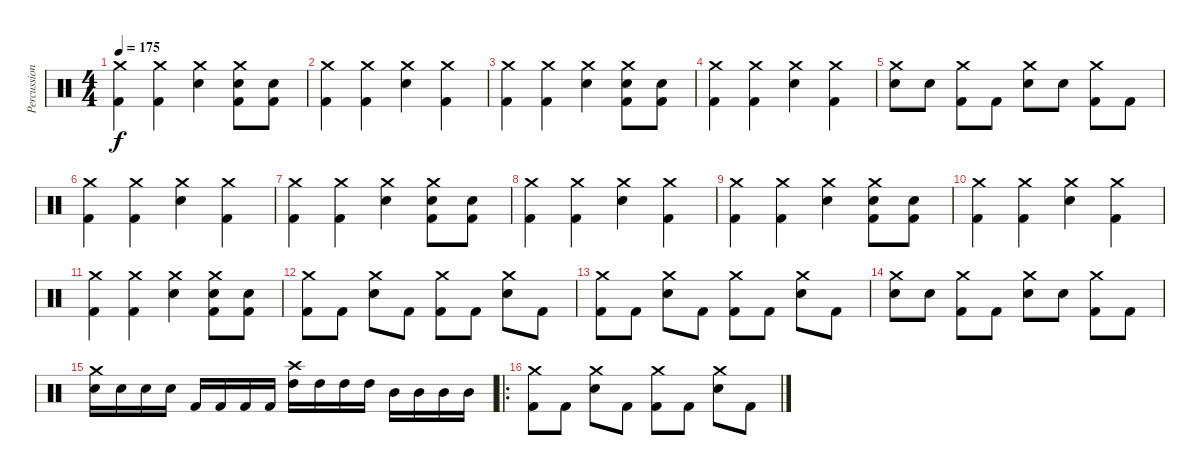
\track ("Percussions" "Percussion") {instrument percussion}
\staff {score}
\articulation defaults
\ts (4 4)
\tempo 175
\clef neutral
\ks c
("Crash medium (hit)" "Kick (hit) 2").4{dy f} ("Crash medium (hit)" "Kick (hit) 2").4 ("Crash medium (hit)" "Snare (hit) 2").4 ("Crash medium (hit)" "Snare (hit) 2" "Kick (hit) 2").8 ("Snare (hit) 2" "Kick (hit) 2").8 |
("Crash medium (hit)" "Kick (hit) 2").4 ("Crash medium (hit)" "Kick (hit) 2").4 ("Crash medium (hit)" "Snare (hit) 2").4 ("Crash medium (hit)" "Kick (hit) 2").4 |
("Crash medium (hit)" "Kick (hit) 2").4 ("Crash medium (hit)" "Kick (hit) 2").4 ("Crash medium (hit)" "Snare (hit) 2").4 ("Crash medium (hit)" "Snare (hit) 2" "Kick (hit) 2").8 ("Snare (hit) 2" "Kick (hit) 2").8 |
("Crash medium (hit)" "Kick (hit) 2").4 ("Crash medium (hit)" "Kick (hit) 2").4 ("Crash medium (hit)" "Snare (hit) 2").4 ("Crash medium (hit)" "Kick (hit) 2").4 |
("Crash medium (hit)" "Snare (hit) 2").8 "Snare (hit) 2".8 ("Crash medium (hit)" "Kick (hit) 2").8 "Kick (hit) 2".8 ("Crash medium (hit)" "Snare (hit) 2").8 "Snare (hit) 2".8 ("Crash medium (hit)" "Kick (hit) 2").8 "Kick (hit) 2".8 |
("Crash medium (hit)" "Kick (hit) 2").4 ("Crash medium (hit)" "Kick (hit) 2").4 ("Crash medium (hit)" "Snare (hit) 2").4 ("Crash medium (hit)" "Kick (hit) 2").4 |
("Crash medium (hit)" "Kick (hit) 2").4 ("Crash medium (hit)" "Kick (hit) 2").4 ("Crash medium (hit)" "Snare (hit) 2").4 ("Crash medium (hit)" "Snare (hit) 2" "Kick (hit) 2").8 ("Snare (hit) 2" "Kick (hit) 2").8 |
("Crash medium (hit)" "Kick (hit) 2").4 ("Crash medium (hit)" "Kick (hit) 2").4 ("Crash medium (hit)" "Snare (hit) 2").4 ("Crash medium (hit)" "Kick (hit) 2").4 |
("Crash medium (hit)" "Kick (hit) 2").4 ("Crash medium (hit)" "Kick (hit) 2").4 ("Crash medium (hit)" "Snare (hit) 2").4 ("Crash medium (hit)" "Snare (hit) 2" "Kick (hit) 2").8 ("Snare (hit) 2" "Kick (hit) 2").8 |
("Crash medium (hit)" "Kick (hit) 2").4 ("Crash medium (hit)" "Kick (hit) 2").4 ("Crash medium (hit)" "Snare (hit) 2").4 ("Crash medium (hit)" "Kick (hit) 2").4 |
("Crash medium (hit)" "Kick (hit) 2").4 ("Crash medium (hit)" "Kick (hit) 2").4 ("Crash medium (hit)" "Snare (hit) 2").4 ("Crash medium (hit)" "Snare (hit) 2" "Kick (hit) 2").8 ("Snare (hit) 2" "Kick (hit) 2").8 |
("Crash medium (hit)" "Kick (hit) 2").8 "Kick (hit) 2".8 ("Crash medium (hit)" "Snare (hit) 2").8 "Kick (hit) 2".8 ("Crash medium (hit)" "Kick (hit) 2").8 "Kick (hit) 2".8 ("Crash medium (hit)" "Snare (hit) 2").8 "Kick (hit) 2".8 |
("Crash medium (hit)" "Kick (hit) 2").8 "Kick (hit) 2".8 ("Crash medium (hit)" "Snare (hit) 2").8 "Kick (hit) 2".8 ("Crash medium (hit)" "Kick (hit) 2").8 "Kick (hit) 2".8 ("Crash medium (hit)" "Snare (hit) 2").8 "Kick (hit) 2".8 |
("Crash medium (hit)" "Snare (hit) 2").8 "Snare (hit) 2".8 ("Crash medium (hit)" "Kick (hit) 2").8 "Kick (hit) 2".8 ("Crash medium (hit)" "Snare (hit) 2").8 "Snare (hit) 2".8 ("Crash medium (hit)" "Kick (hit) 2").8 "Kick (hit) 2".8 |
("Crash medium (hit)" "Snare (hit) 2").16 "Snare (hit) 2".16 "Snare (hit) 2".16 "Snare (hit) 2".16 "Kick (hit) 2".16 "Kick (hit) 2".16 "Kick (hit) 2".16 "Kick (hit) 2".16 ("Crash high (hit)" "High Tom (hit)").16 "High Tom (hit)".16 "High Tom (hit)".16 "High Tom (hit)".16 "Mid Tom (hit)".16 "Mid Tom (hit)".16 "Mid Tom (hit)".16 "Mid Tom (hit)".16 |
\ro
("Crash medium (hit)" "Kick (hit) 2").8 "Kick (hit) 2".8 ("Crash medium (hit)" "Snare (hit) 2").8 "Kick (hit) 2".8 ("Crash medium (hit)" "Kick (hit) 2").8 "Kick (hit) 2".8 ("Crash medium (hit)" "Snare (hit) 2").8 "Kick (hit) 2".8
